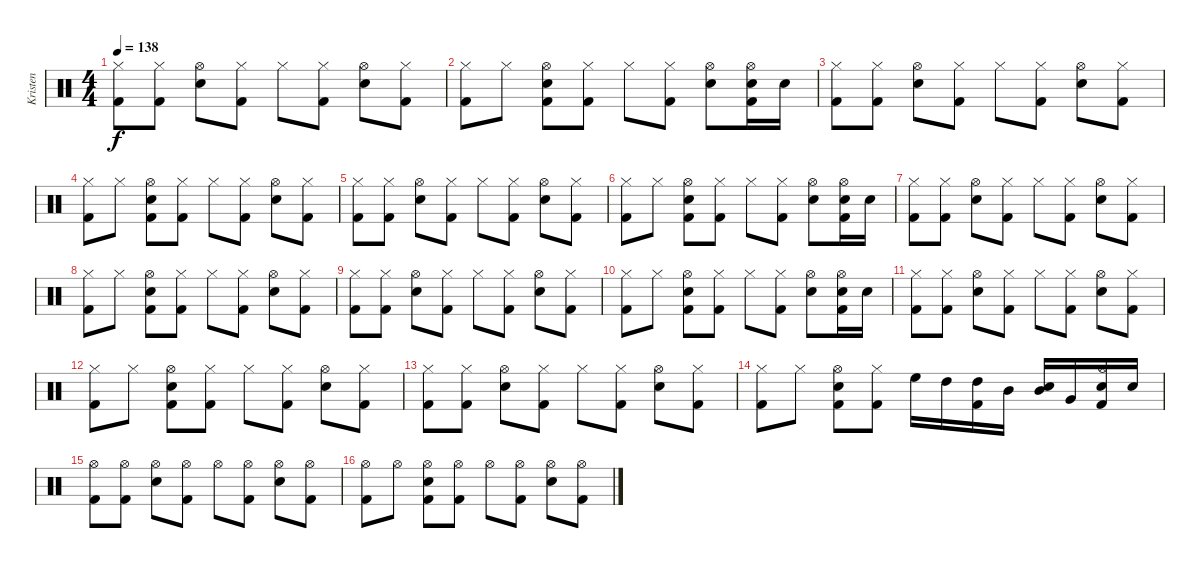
\track ("Kristen" "Kristen") {instrument percussion}
\staff {score}
\articulation defaults
\ts (4 4)
\tempo 138
\clef neutral
\ks c
("Hi-Hat (closed)" "Kick (hit) 2").8{dy f} ("Hi-Hat (closed)" "Kick (hit) 2").8 ("Hi-Hat (open)" "Snare (hit) 2").8 ("Hi-Hat (closed)" "Kick (hit) 2").8 "Hi-Hat (closed)".8 ("Hi-Hat (closed)" "Kick (hit) 2").8 ("Hi-Hat (open)" "Snare (hit) 2").8 ("Hi-Hat (closed)" "Kick (hit) 2").8 |
("Hi-Hat (closed)" "Kick (hit) 2").8 "Hi-Hat (closed)".8 ("Hi-Hat (open)" "Snare (hit) 2" "Kick (hit) 2").8 ("Hi-Hat (closed)" "Kick (hit) 2").8 "Hi-Hat (closed)".8 ("Hi-Hat (closed)" "Kick (hit) 2").8 ("Hi-Hat (open)" "Snare (hit) 2").8 ("Hi-Hat (open)" "Snare (hit) 2" "Kick (hit) 2").16 "Snare (hit) 2".16 |
("Hi-Hat (closed)" "Kick (hit) 2").8 ("Hi-Hat (closed)" "Kick (hit) 2").8 ("Hi-Hat (open)" "Snare (hit) 2").8 ("Hi-Hat (closed)" "Kick (hit) 2").8 "Hi-Hat (closed)".8 ("Hi-Hat (closed)" "Kick (hit) 2").8 ("Hi-Hat (open)" "Snare (hit) 2").8 ("Hi-Hat (closed)" "Kick (hit) 2").8 |
("Hi-Hat (closed)" "Kick (hit) 2").8 "Hi-Hat (closed)".8 ("Hi-Hat (open)" "Snare (hit) 2" "Kick (hit) 2").8 ("Hi-Hat (closed)" "Kick (hit) 2").8 "Hi-Hat (closed)".8 ("Hi-Hat (closed)" "Kick (hit) 2").8 ("Hi-Hat (open)" "Snare (hit) 2").8 ("Hi-Hat (closed)" "Kick (hit) 2").8 |
("Hi-Hat (closed)" "Kick (hit) 2").8 ("Hi-Hat (closed)" "Kick (hit) 2").8 ("Hi-Hat (open)" "Snare (hit) 2").8 ("Hi-Hat (closed)" "Kick (hit) 2").8 "Hi-Hat (closed)".8 ("Hi-Hat (closed)" "Kick (hit) 2").8 ("Hi-Hat (open)" "Snare (hit) 2").8 ("Hi-Hat (closed)" "Kick (hit) 2").8 |
("Hi-Hat (closed)" "Kick (hit) 2").8 "Hi-Hat (closed)".8 ("Hi-Hat (open)" "Snare (hit) 2" "Kick (hit) 2").8 ("Hi-Hat (closed)" "Kick (hit) 2").8 "Hi-Hat (closed)".8 ("Hi-Hat (closed)" "Kick (hit) 2").8 ("Hi-Hat (open)" "Snare (hit) 2").8 ("Hi-Hat (open)" "Snare (hit) 2" "Kick (hit) 2").16 "Snare (hit) 2".16 |
("Hi-Hat (closed)" "Kick (hit) 2").8 ("Hi-Hat (closed)" "Kick (hit) 2").8 ("Hi-Hat (open)" "Snare (hit) 2").8 ("Hi-Hat (closed)" "Kick (hit) 2").8 "Hi-Hat (closed)".8 ("Hi-Hat (closed)" "Kick (hit) 2").8 ("Hi-Hat (open)" "Snare (hit) 2").8 ("Hi-Hat (closed)" "Kick (hit) 2").8 |
("Hi-Hat (closed)" "Kick (hit) 2").8 "Hi-Hat (closed)".8 ("Hi-Hat (open)" "Snare (hit) 2" "Kick (hit) 2").8 ("Hi-Hat (closed)" "Kick (hit) 2").8 "Hi-Hat (closed)".8 ("Hi-Hat (closed)" "Kick (hit) 2").8 ("Hi-Hat (open)" "Snare (hit) 2").8 ("Hi-Hat (closed)" "Kick (hit) 2").8 |
("Hi-Hat (closed)" "Kick (hit) 2").8 ("Hi-Hat (closed)" "Kick (hit) 2").8 ("Hi-Hat (open)" "Snare (hit) 2").8 ("Hi-Hat (closed)" "Kick (hit) 2").8 "Hi-Hat (closed)".8 ("Hi-Hat (closed)" "Kick (hit) 2").8 ("Hi-Hat (open)" "Snare (hit) 2").8 ("Hi-Hat (closed)" "Kick (hit) 2").8 |
("Hi-Hat (closed)" "Kick (hit) 2").8 "Hi-Hat (closed)".8 ("Hi-Hat (open)" "Snare (hit) 2" "Kick (hit) 2").8 ("Hi-Hat (closed)" "Kick (hit) 2").8 "Hi-Hat (closed)".8 ("Hi-Hat (closed)" "Kick (hit) 2").8 ("Hi-Hat (open)" "Snare (hit) 2").8 ("Hi-Hat (open)" "Snare (hit) 2" "Kick (hit) 2").16 "Snare (hit) 2".16 |
("Hi-Hat (closed)" "Kick (hit) 2").8 ("Hi-Hat (closed)" "Kick (hit) 2").8 ("Hi-Hat (open)" "Snare (hit) 2").8 ("Hi-Hat (closed)" "Kick (hit) 2").8 "Hi-Hat (closed)".8 ("Hi-Hat (closed)" "Kick (hit) 2").8 ("Hi-Hat (open)" "Snare (hit) 2").8 ("Hi-Hat (closed)" "Kick (hit) 2").8 |
("Hi-Hat (closed)" "Kick (hit) 2").8 "Hi-Hat (closed)".8 ("Hi-Hat (open)" "Snare (hit) 2" "Kick (hit) 2").8 ("Hi-Hat (closed)" "Kick (hit) 2").8 "Hi-Hat (closed)".8 ("Hi-Hat (closed)" "Kick (hit) 2").8 ("Hi-Hat (open)" "Snare (hit) 2").8 ("Hi-Hat (closed)" "Kick (hit) 2").8 |
("Hi-Hat (closed)" "Kick (hit) 2").8 ("Hi-Hat (closed)" "Kick (hit) 2").8 ("Hi-Hat (open)" "Snare (hit) 2").8 ("Hi-Hat (closed)" "Kick (hit) 2").8 "Hi-Hat (closed)".8 ("Hi-Hat (closed)" "Kick (hit) 2").8 ("Hi-Hat (open)" "Snare (hit) 2").8 ("Hi-Hat (closed)" "Kick (hit) 2").8 |
("Hi-Hat (closed)" "Kick (hit) 2").8 "Hi-Hat (closed)".8 ("Hi-Hat (open)" "Snare (hit) 2" "Kick (hit) 2").8 ("Hi-Hat (closed)" "Kick (hit) 2").8 "High Floor Tom (hit)".16 "High Tom (hit)".16 ("High Tom (hit)" "Kick (hit) 2").16 "Mid Tom (hit)".16 ("Mid Tom (hit)" "Snare (hit) 2").16 "Very Low Tom (hit)".16 ("Hi-Hat (open)" "Snare (hit) 2" "Kick (hit) 2").16 "Snare (hit) 2".16 |
("Hi-Hat (open)" "Kick (hit) 2").8 ("Hi-Hat (open)" "Kick (hit) 2").8 ("Hi-Hat (open)" "Snare (hit) 2").8 ("Hi-Hat (open)" "Kick (hit) 2").8 "Hi-Hat (open)".8 ("Hi-Hat (open)" "Kick (hit) 2").8 ("Hi-Hat (open)" "Snare (hit) 2").8 ("Hi-Hat (open)" "Kick (hit) 2").8 |
("Hi-Hat (open)" "Kick (hit) 2").8 "Hi-Hat (open)".8 ("Hi-Hat (open)" "Snare (hit) 2" "Kick (hit) 2").8 ("Hi-Hat (open)" "Kick (hit) 2").8 "Hi-Hat (open)".8 ("Hi-Hat (open)" "Kick (hit) 2").8 ("Hi-Hat (open)" "Snare (hit) 2").8 ("Hi-Hat (open)" "Kick (hit) 2").8
